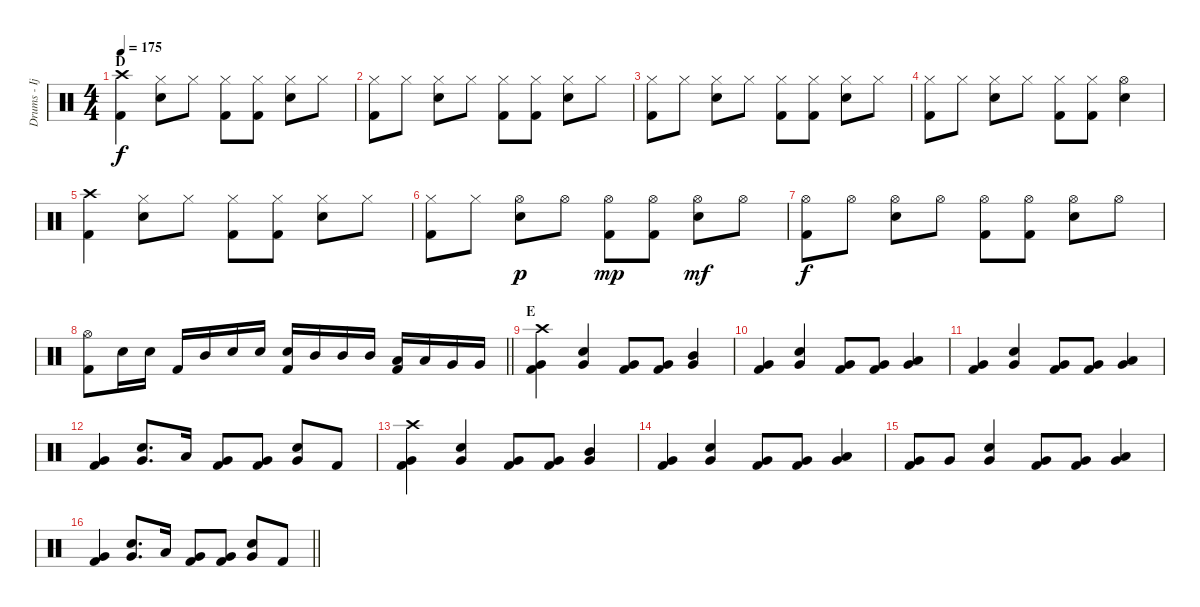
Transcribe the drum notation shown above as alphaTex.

\track ("Drums - Ijichi" "Drums - Ij") {instrument percussion}
\staff {score}
\articulation defaults
\ts (4 4)
\section ("" "D")
\tempo 175
\clef neutral
\ks c
("Crash high (hit)" "Kick (hit) 2").4{dy f} ("Hi-Hat (closed)" "Snare (hit) 2").8 "Hi-Hat (closed)".8 ("Hi-Hat (closed)" "Kick (hit) 2").8 ("Hi-Hat (closed)" "Kick (hit) 2").8 ("Hi-Hat (closed)" "Snare (hit) 2").8 "Hi-Hat (closed)".8 |
("Hi-Hat (closed)" "Kick (hit) 2").8 "Hi-Hat (closed)".8 ("Hi-Hat (closed)" "Snare (hit) 2").8 "Hi-Hat (closed)".8 ("Hi-Hat (closed)" "Kick (hit) 2").8 ("Hi-Hat (closed)" "Kick (hit) 2").8 ("Hi-Hat (closed)" "Snare (hit) 2").8 "Hi-Hat (closed)".8 |
("Hi-Hat (closed)" "Kick (hit) 2").8 "Hi-Hat (closed)".8 ("Hi-Hat (closed)" "Snare (hit) 2").8 "Hi-Hat (closed)".8 ("Hi-Hat (closed)" "Kick (hit) 2").8 ("Hi-Hat (closed)" "Kick (hit) 2").8 ("Hi-Hat (closed)" "Snare (hit) 2").8 "Hi-Hat (closed)".8 |
("Hi-Hat (closed)" "Kick (hit) 2").8 "Hi-Hat (closed)".8 ("Hi-Hat (closed)" "Snare (hit) 2").8 "Hi-Hat (closed)".8 ("Hi-Hat (closed)" "Kick (hit) 2").8 ("Hi-Hat (closed)" "Kick (hit) 2").8 ("Hi-Hat (open)" "Snare (hit) 2").4 |
("Crash high (hit)" "Kick (hit) 2").4 ("Hi-Hat (closed)" "Snare (hit) 2").8 "Hi-Hat (closed)".8 ("Hi-Hat (closed)" "Kick (hit) 2").8 ("Hi-Hat (closed)" "Kick (hit) 2").8 ("Hi-Hat (closed)" "Snare (hit) 2").8 "Hi-Hat (closed)".8 |
("Hi-Hat (closed)" "Kick (hit) 2").8 "Hi-Hat (closed)".8 ("Hi-Hat (open)" "Snare (hit) 2").8{dy p} "Hi-Hat (open)".8 ("Hi-Hat (open)" "Kick (hit) 2").8{dy mp} ("Hi-Hat (open)" "Kick (hit) 2").8 ("Hi-Hat (open)" "Snare (hit) 2").8{dy mf} "Hi-Hat (open)".8 |
("Hi-Hat (open)" "Kick (hit) 2").8{dy f} "Hi-Hat (open)".8 ("Hi-Hat (open)" "Snare (hit) 2").8 "Hi-Hat (open)".8 ("Hi-Hat (open)" "Kick (hit) 2").8 ("Hi-Hat (open)" "Kick (hit) 2").8 ("Hi-Hat (open)" "Snare (hit) 2").8 "Hi-Hat (open)".8 |
\barLineRight lightlight
("Hi-Hat (open)" "Kick (hit) 2").8 "Snare (hit) 2".16 "Snare (hit) 2".16 "Kick (hit) 2".16 "Mid Tom (hit)".16 "Snare (hit) 2".16 "Snare (hit) 2".16 ("Snare (hit) 2" "Kick (hit) 2").16 "Mid Tom (hit)".16 "Mid Tom (hit)".16 "Mid Tom (hit)".16 ("Low Tom (hit)" "Kick (hit) 2").16 "Low Tom (hit)".16 "Very Low Tom (hit)".16 "Very Low Tom (hit)".16 |
\section ("" "E")
("Crash high (hit)" "Very Low Tom (hit)" "Kick (hit) 2").4 ("Snare (hit) 2" "Very Low Tom (hit)").4 ("Very Low Tom (hit)" "Kick (hit) 2").8 ("Very Low Tom (hit)" "Kick (hit) 2").8 ("Mid Tom (hit)" "Very Low Tom (hit)").4 |
("Very Low Tom (hit)" "Kick (hit) 2").4 ("Snare (hit) 2" "Very Low Tom (hit)").4 ("Very Low Tom (hit)" "Kick (hit) 2").8 ("Very Low Tom (hit)" "Kick (hit) 2").8 ("Low Tom (hit)" "Very Low Tom (hit)").4 |
("Very Low Tom (hit)" "Kick (hit) 2").4 ("Snare (hit) 2" "Very Low Tom (hit)").4 ("Very Low Tom (hit)" "Kick (hit) 2").8 ("Very Low Tom (hit)" "Kick (hit) 2").8 ("Low Tom (hit)" "Very Low Tom (hit)").4 |
("Very Low Tom (hit)" "Kick (hit) 2").4 ("Snare (hit) 2" "Very Low Tom (hit)").8{d} "Low Tom (hit)".16 ("Very Low Tom (hit)" "Kick (hit) 2").8 ("Very Low Tom (hit)" "Kick (hit) 2").8 ("Snare (hit) 2" "Very Low Tom (hit)").8 "Kick (hit) 2".8 |
("Crash high (hit)" "Very Low Tom (hit)" "Kick (hit) 2").4 ("Snare (hit) 2" "Very Low Tom (hit)").4 ("Very Low Tom (hit)" "Kick (hit) 2").8 ("Very Low Tom (hit)" "Kick (hit) 2").8 ("Mid Tom (hit)" "Very Low Tom (hit)").4 |
("Very Low Tom (hit)" "Kick (hit) 2").4 ("Snare (hit) 2" "Very Low Tom (hit)").4 ("Very Low Tom (hit)" "Kick (hit) 2").8 ("Very Low Tom (hit)" "Kick (hit) 2").8 ("Low Tom (hit)" "Very Low Tom (hit)").4 |
("Very Low Tom (hit)" "Kick (hit) 2").8 "Very Low Tom (hit)".8 ("Snare (hit) 2" "Very Low Tom (hit)").4 ("Very Low Tom (hit)" "Kick (hit) 2").8 ("Very Low Tom (hit)" "Kick (hit) 2").8 ("Low Tom (hit)" "Very Low Tom (hit)").4 |
\barLineRight lightlight
("Very Low Tom (hit)" "Kick (hit) 2").4 ("Snare (hit) 2" "Very Low Tom (hit)").8{d} "Low Tom (hit)".16 ("Very Low Tom (hit)" "Kick (hit) 2").8 ("Very Low Tom (hit)" "Kick (hit) 2").8 ("Snare (hit) 2" "Very Low Tom (hit)").8 "Kick (hit) 2".8
